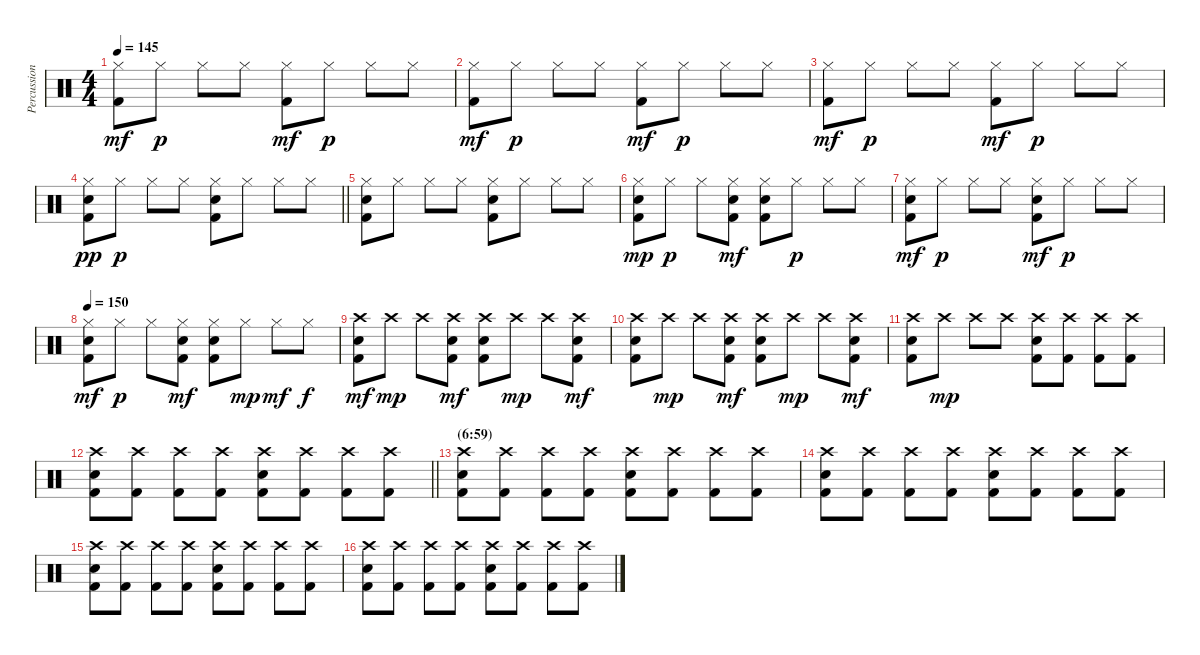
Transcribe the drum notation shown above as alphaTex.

\track ("Percussion" "Percussion") {instrument percussion}
\staff {score}
\articulation defaults
\ts (4 4)
\tempo 145
\clef neutral
\ks c
("Hi-Hat (closed)" "Kick (hit) 2").8{dy mf} "Hi-Hat (closed)".8{dy p} "Hi-Hat (closed)".8 "Hi-Hat (closed)".8 ("Hi-Hat (closed)" "Kick (hit) 2").8{dy mf} "Hi-Hat (closed)".8{dy p} "Hi-Hat (closed)".8 "Hi-Hat (closed)".8 |
("Hi-Hat (closed)" "Kick (hit) 2").8{dy mf} "Hi-Hat (closed)".8{dy p} "Hi-Hat (closed)".8 "Hi-Hat (closed)".8 ("Hi-Hat (closed)" "Kick (hit) 2").8{dy mf} "Hi-Hat (closed)".8{dy p} "Hi-Hat (closed)".8 "Hi-Hat (closed)".8 |
("Hi-Hat (closed)" "Kick (hit) 2").8{dy mf} "Hi-Hat (closed)".8{dy p} "Hi-Hat (closed)".8 "Hi-Hat (closed)".8 ("Hi-Hat (closed)" "Kick (hit) 2").8{dy mf} "Hi-Hat (closed)".8{dy p} "Hi-Hat (closed)".8 "Hi-Hat (closed)".8 |
\barLineRight lightlight
("Hi-Hat (closed)" "Electric Snare (hit)" "Kick (hit) 2").8{dy pp} "Hi-Hat (closed)".8{dy p} "Hi-Hat (closed)".8 "Hi-Hat (closed)".8 ("Hi-Hat (closed)" "Electric Snare (hit)" "Kick (hit) 2").8 "Hi-Hat (closed)".8 "Hi-Hat (closed)".8 "Hi-Hat (closed)".8 |
("Hi-Hat (closed)" "Electric Snare (hit)" "Kick (hit) 2").8 "Hi-Hat (closed)".8 "Hi-Hat (closed)".8 "Hi-Hat (closed)".8 ("Hi-Hat (closed)" "Electric Snare (hit)" "Kick (hit) 2").8 "Hi-Hat (closed)".8 "Hi-Hat (closed)".8 "Hi-Hat (closed)".8 |
("Hi-Hat (closed)" "Electric Snare (hit)" "Kick (hit) 2").8{dy mp} "Hi-Hat (closed)".8{dy p} "Hi-Hat (closed)".8 ("Hi-Hat (closed)" "Electric Snare (hit)" "Kick (hit) 2").8{dy mf} ("Hi-Hat (closed)" "Electric Snare (hit)" "Kick (hit) 2").8 "Hi-Hat (closed)".8{dy p} "Hi-Hat (closed)".8 "Hi-Hat (closed)".8 |
("Hi-Hat (closed)" "Electric Snare (hit)" "Kick (hit) 2").8{dy mf} "Hi-Hat (closed)".8{dy p} "Hi-Hat (closed)".8 "Hi-Hat (closed)".8 ("Hi-Hat (closed)" "Electric Snare (hit)" "Kick (hit) 2").8{dy mf} "Hi-Hat (closed)".8{dy p} "Hi-Hat (closed)".8 "Hi-Hat (closed)".8 |
\tempo 150
("Hi-Hat (closed)" "Electric Snare (hit)" "Kick (hit) 2").8{dy mf} "Hi-Hat (closed)".8{dy p} "Hi-Hat (closed)".8 ("Hi-Hat (closed)" "Electric Snare (hit)" "Kick (hit) 2").8{dy mf} ("Hi-Hat (closed)" "Electric Snare (hit)" "Kick (hit) 2").8 "Hi-Hat (closed)".8{dy mp} "Hi-Hat (closed)".8{dy mf} "Hi-Hat (closed)".8{dy f} |
("Crash high (hit)" "Electric Snare (hit)" "Kick (hit) 2").8{dy mf} "Crash high (hit)".8{dy mp} "Crash high (hit)".8 ("Crash high (hit)" "Electric Snare (hit)" "Kick (hit) 2").8{dy mf} ("Crash high (hit)" "Electric Snare (hit)" "Kick (hit) 2").8 "Crash high (hit)".8{dy mp} "Crash high (hit)".8 ("Crash high (hit)" "Electric Snare (hit)" "Kick (hit) 2").8{dy mf} |
("Crash high (hit)" "Electric Snare (hit)" "Kick (hit) 2").8 "Crash high (hit)".8{dy mp} "Crash high (hit)".8 ("Crash high (hit)" "Electric Snare (hit)" "Kick (hit) 2").8{dy mf} ("Crash high (hit)" "Electric Snare (hit)" "Kick (hit) 2").8 "Crash high (hit)".8{dy mp} "Crash high (hit)".8 ("Crash high (hit)" "Electric Snare (hit)" "Kick (hit) 2").8{dy mf} |
("Crash high (hit)" "Electric Snare (hit)" "Kick (hit) 2").8 "Crash high (hit)".8{dy mp} "Crash high (hit)".8 "Crash high (hit)".8 ("Crash high (hit)" "Electric Snare (hit)" "Kick (hit) 2").8 ("Crash high (hit)" "Kick (hit) 2").8 ("Crash high (hit)" "Kick (hit) 2").8 ("Crash high (hit)" "Kick (hit) 2").8 |
\barLineRight lightlight
("Crash high (hit)" "Electric Snare (hit)" "Kick (hit) 2").8 ("Crash high (hit)" "Kick (hit) 2").8 ("Crash high (hit)" "Kick (hit) 2").8 ("Crash high (hit)" "Kick (hit) 2").8 ("Crash high (hit)" "Electric Snare (hit)" "Kick (hit) 2").8 ("Crash high (hit)" "Kick (hit) 2").8 ("Crash high (hit)" "Kick (hit) 2").8 ("Crash high (hit)" "Kick (hit) 2").8 |
\section ("" "(6:59)")
("Crash high (hit)" "Electric Snare (hit)" "Kick (hit) 2").8 ("Crash high (hit)" "Kick (hit) 2").8 ("Crash high (hit)" "Kick (hit) 2").8 ("Crash high (hit)" "Kick (hit) 2").8 ("Crash high (hit)" "Electric Snare (hit)" "Kick (hit) 2").8 ("Crash high (hit)" "Kick (hit) 2").8 ("Crash high (hit)" "Kick (hit) 2").8 ("Crash high (hit)" "Kick (hit) 2").8 |
("Crash high (hit)" "Electric Snare (hit)" "Kick (hit) 2").8 ("Crash high (hit)" "Kick (hit) 2").8 ("Crash high (hit)" "Kick (hit) 2").8 ("Crash high (hit)" "Kick (hit) 2").8 ("Crash high (hit)" "Electric Snare (hit)" "Kick (hit) 2").8 ("Crash high (hit)" "Kick (hit) 2").8 ("Crash high (hit)" "Kick (hit) 2").8 ("Crash high (hit)" "Kick (hit) 2").8 |
("Crash high (hit)" "Electric Snare (hit)" "Kick (hit) 2").8 ("Crash high (hit)" "Kick (hit) 2").8 ("Crash high (hit)" "Kick (hit) 2").8 ("Crash high (hit)" "Kick (hit) 2").8 ("Crash high (hit)" "Electric Snare (hit)" "Kick (hit) 2").8 ("Crash high (hit)" "Kick (hit) 2").8 ("Crash high (hit)" "Kick (hit) 2").8 ("Crash high (hit)" "Kick (hit) 2").8 |
("Crash high (hit)" "Electric Snare (hit)" "Kick (hit) 2").8 ("Crash high (hit)" "Kick (hit) 2").8 ("Crash high (hit)" "Kick (hit) 2").8 ("Crash high (hit)" "Kick (hit) 2").8 ("Crash high (hit)" "Electric Snare (hit)" "Kick (hit) 2").8 ("Crash high (hit)" "Kick (hit) 2").8 ("Crash high (hit)" "Kick (hit) 2").8 ("Crash high (hit)" "Kick (hit) 2").8
